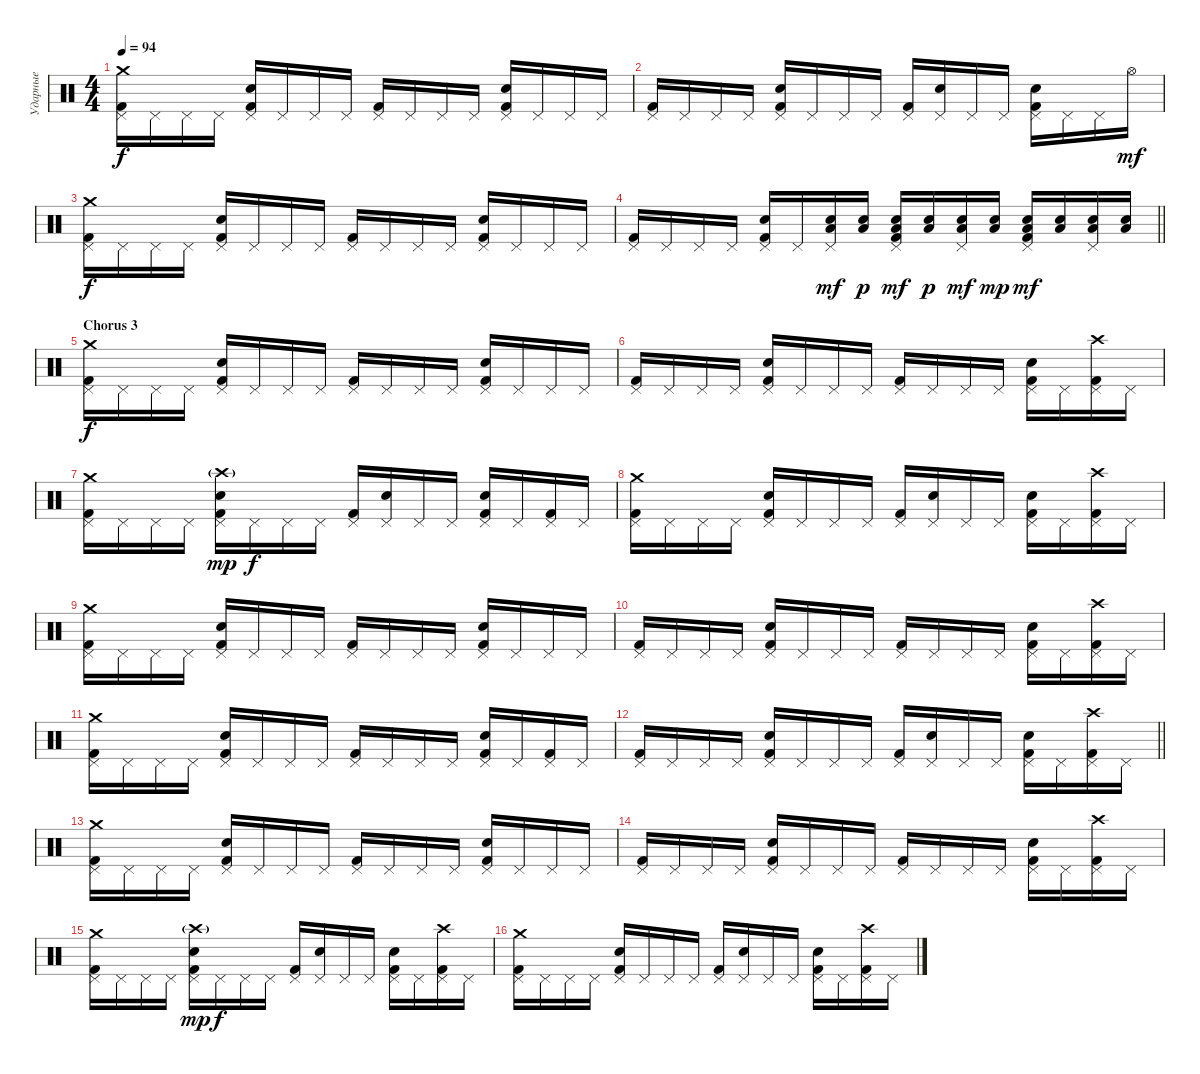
\track ("Ударные" "Ударные") {instrument percussion}
\staff {score}
\articulation defaults
\ts (4 4)
\tempo 94
\clef neutral
\ks c
("Crash medium (hit)" "Pedal Hi-Hat (hit)" "Kick (hit) 2").16{dy f} "Pedal Hi-Hat (hit)".16 "Pedal Hi-Hat (hit)".16 "Pedal Hi-Hat (hit)".16 ("Pedal Hi-Hat (hit)" "Snare (hit) 2" "Kick (hit) 2").16 "Pedal Hi-Hat (hit)".16 "Pedal Hi-Hat (hit)".16 "Pedal Hi-Hat (hit)".16 ("Pedal Hi-Hat (hit)" "Kick (hit) 2").16 "Pedal Hi-Hat (hit)".16 "Pedal Hi-Hat (hit)".16 "Pedal Hi-Hat (hit)".16 ("Pedal Hi-Hat (hit)" "Snare (hit) 2" "Kick (hit) 2").16 "Pedal Hi-Hat (hit)".16 "Pedal Hi-Hat (hit)".16 "Pedal Hi-Hat (hit)".16 |
("Pedal Hi-Hat (hit)" "Kick (hit) 2").16 "Pedal Hi-Hat (hit)".16 "Pedal Hi-Hat (hit)".16 "Pedal Hi-Hat (hit)".16 ("Pedal Hi-Hat (hit)" "Snare (hit) 2" "Kick (hit) 2").16 "Pedal Hi-Hat (hit)".16 "Pedal Hi-Hat (hit)".16 "Pedal Hi-Hat (hit)".16 ("Pedal Hi-Hat (hit)" "Kick (hit) 2").16 ("Pedal Hi-Hat (hit)" "Snare (hit) 2").16 "Pedal Hi-Hat (hit)".16 "Pedal Hi-Hat (hit)".16 ("Pedal Hi-Hat (hit)" "Snare (hit) 2" "Kick (hit) 2").16 "Pedal Hi-Hat (hit)".16 "Pedal Hi-Hat (hit)".16 "Hi-Hat (open)".16{dy mf} |
("Crash medium (hit)" "Pedal Hi-Hat (hit)" "Kick (hit) 2").16{dy f} "Pedal Hi-Hat (hit)".16 "Pedal Hi-Hat (hit)".16 "Pedal Hi-Hat (hit)".16 ("Pedal Hi-Hat (hit)" "Snare (hit) 2" "Kick (hit) 2").16 "Pedal Hi-Hat (hit)".16 "Pedal Hi-Hat (hit)".16 "Pedal Hi-Hat (hit)".16 ("Pedal Hi-Hat (hit)" "Kick (hit) 2").16 "Pedal Hi-Hat (hit)".16 "Pedal Hi-Hat (hit)".16 "Pedal Hi-Hat (hit)".16 ("Pedal Hi-Hat (hit)" "Snare (hit) 2" "Kick (hit) 2").16 "Pedal Hi-Hat (hit)".16 "Pedal Hi-Hat (hit)".16 "Pedal Hi-Hat (hit)".16 |
\barLineRight lightlight
("Pedal Hi-Hat (hit)" "Kick (hit) 2").16 "Pedal Hi-Hat (hit)".16 "Pedal Hi-Hat (hit)".16 "Pedal Hi-Hat (hit)".16 ("Pedal Hi-Hat (hit)" "Snare (hit) 2" "Kick (hit) 2").16 "Pedal Hi-Hat (hit)".16 ("Low Floor Tom (hit)" "Electric Snare (hit)" "Pedal Hi-Hat (hit)").16{dy mf} ("Low Floor Tom (hit)" "Electric Snare (hit)").16{dy p} ("Low Floor Tom (hit)" "Electric Snare (hit)" "Pedal Hi-Hat (hit)" "Kick (hit) 2").16{dy mf} ("Low Floor Tom (hit)" "Electric Snare (hit)").16{dy p} ("Low Floor Tom (hit)" "Electric Snare (hit)" "Pedal Hi-Hat (hit)").16{dy mf} ("Low Floor Tom (hit)" "Electric Snare (hit)").16{dy mp} ("Low Floor Tom (hit)" "Electric Snare (hit)" "Pedal Hi-Hat (hit)" "Kick (hit) 2").16{dy mf} ("Low Floor Tom (hit)" "Electric Snare (hit)").16 ("Low Floor Tom (hit)" "Electric Snare (hit)" "Pedal Hi-Hat (hit)").16 ("Low Floor Tom (hit)" "Electric Snare (hit)").16 |
\section ("" "Chorus 3")
("Crash medium (hit)" "Pedal Hi-Hat (hit)" "Kick (hit) 2").16{dy f} "Pedal Hi-Hat (hit)".16 "Pedal Hi-Hat (hit)".16 "Pedal Hi-Hat (hit)".16 ("Pedal Hi-Hat (hit)" "Snare (hit) 2" "Kick (hit) 2").16 "Pedal Hi-Hat (hit)".16 "Pedal Hi-Hat (hit)".16 "Pedal Hi-Hat (hit)".16 ("Pedal Hi-Hat (hit)" "Kick (hit) 2").16 "Pedal Hi-Hat (hit)".16 "Pedal Hi-Hat (hit)".16 "Pedal Hi-Hat (hit)".16 ("Pedal Hi-Hat (hit)" "Snare (hit) 2" "Kick (hit) 2").16 "Pedal Hi-Hat (hit)".16 "Pedal Hi-Hat (hit)".16 "Pedal Hi-Hat (hit)".16 |
("Pedal Hi-Hat (hit)" "Kick (hit) 2").16 "Pedal Hi-Hat (hit)".16 "Pedal Hi-Hat (hit)".16 "Pedal Hi-Hat (hit)".16 ("Pedal Hi-Hat (hit)" "Snare (hit) 2" "Kick (hit) 2").16 "Pedal Hi-Hat (hit)".16 "Pedal Hi-Hat (hit)".16 "Pedal Hi-Hat (hit)".16 ("Pedal Hi-Hat (hit)" "Kick (hit) 2").16 "Pedal Hi-Hat (hit)".16 "Pedal Hi-Hat (hit)".16 "Pedal Hi-Hat (hit)".16 ("Pedal Hi-Hat (hit)" "Snare (hit) 2" "Kick (hit) 2").16 "Pedal Hi-Hat (hit)".16 ("Crash high (hit)" "Pedal Hi-Hat (hit)" "Kick (hit) 2").16 "Pedal Hi-Hat (hit)".16 |
("Crash medium (hit)" "Pedal Hi-Hat (hit)" "Kick (hit) 2").16 "Pedal Hi-Hat (hit)".16 "Pedal Hi-Hat (hit)".16 "Pedal Hi-Hat (hit)".16 ("Crash high (hit)"{g} "Pedal Hi-Hat (hit)" "Snare (hit) 2" "Kick (hit) 2").16{dy mp} "Pedal Hi-Hat (hit)".16{dy f} "Pedal Hi-Hat (hit)".16 "Pedal Hi-Hat (hit)".16 ("Pedal Hi-Hat (hit)" "Kick (hit) 2").16 ("Pedal Hi-Hat (hit)" "Snare (hit) 2").16 "Pedal Hi-Hat (hit)".16 "Pedal Hi-Hat (hit)".16 ("Pedal Hi-Hat (hit)" "Snare (hit) 2" "Kick (hit) 2").16 "Pedal Hi-Hat (hit)".16 ("Pedal Hi-Hat (hit)" "Kick (hit) 2").16 "Pedal Hi-Hat (hit)".16 |
("Crash medium (hit)" "Pedal Hi-Hat (hit)" "Kick (hit) 2").16 "Pedal Hi-Hat (hit)".16 "Pedal Hi-Hat (hit)".16 "Pedal Hi-Hat (hit)".16 ("Pedal Hi-Hat (hit)" "Snare (hit) 2" "Kick (hit) 2").16 "Pedal Hi-Hat (hit)".16 "Pedal Hi-Hat (hit)".16 "Pedal Hi-Hat (hit)".16 ("Pedal Hi-Hat (hit)" "Kick (hit) 2").16 ("Pedal Hi-Hat (hit)" "Snare (hit) 2").16 "Pedal Hi-Hat (hit)".16 "Pedal Hi-Hat (hit)".16 ("Pedal Hi-Hat (hit)" "Snare (hit) 2" "Kick (hit) 2").16 "Pedal Hi-Hat (hit)".16 ("Crash high (hit)" "Pedal Hi-Hat (hit)" "Kick (hit) 2").16 "Pedal Hi-Hat (hit)".16 |
("Crash medium (hit)" "Pedal Hi-Hat (hit)" "Kick (hit) 2").16 "Pedal Hi-Hat (hit)".16 "Pedal Hi-Hat (hit)".16 "Pedal Hi-Hat (hit)".16 ("Pedal Hi-Hat (hit)" "Snare (hit) 2" "Kick (hit) 2").16 "Pedal Hi-Hat (hit)".16 "Pedal Hi-Hat (hit)".16 "Pedal Hi-Hat (hit)".16 ("Pedal Hi-Hat (hit)" "Kick (hit) 2").16 "Pedal Hi-Hat (hit)".16 "Pedal Hi-Hat (hit)".16 "Pedal Hi-Hat (hit)".16 ("Pedal Hi-Hat (hit)" "Snare (hit) 2" "Kick (hit) 2").16 "Pedal Hi-Hat (hit)".16 "Pedal Hi-Hat (hit)".16 "Pedal Hi-Hat (hit)".16 |
("Pedal Hi-Hat (hit)" "Kick (hit) 2").16 "Pedal Hi-Hat (hit)".16 "Pedal Hi-Hat (hit)".16 "Pedal Hi-Hat (hit)".16 ("Pedal Hi-Hat (hit)" "Snare (hit) 2" "Kick (hit) 2").16 "Pedal Hi-Hat (hit)".16 "Pedal Hi-Hat (hit)".16 "Pedal Hi-Hat (hit)".16 ("Pedal Hi-Hat (hit)" "Kick (hit) 2").16 "Pedal Hi-Hat (hit)".16 "Pedal Hi-Hat (hit)".16 "Pedal Hi-Hat (hit)".16 ("Pedal Hi-Hat (hit)" "Snare (hit) 2" "Kick (hit) 2").16 "Pedal Hi-Hat (hit)".16 ("Crash high (hit)" "Pedal Hi-Hat (hit)" "Kick (hit) 2").16 "Pedal Hi-Hat (hit)".16 |
("Crash medium (hit)" "Pedal Hi-Hat (hit)" "Kick (hit) 2").16 "Pedal Hi-Hat (hit)".16 "Pedal Hi-Hat (hit)".16 "Pedal Hi-Hat (hit)".16 ("Pedal Hi-Hat (hit)" "Snare (hit) 2" "Kick (hit) 2").16 "Pedal Hi-Hat (hit)".16 "Pedal Hi-Hat (hit)".16 "Pedal Hi-Hat (hit)".16 ("Pedal Hi-Hat (hit)" "Kick (hit) 2").16 "Pedal Hi-Hat (hit)".16 "Pedal Hi-Hat (hit)".16 "Pedal Hi-Hat (hit)".16 ("Pedal Hi-Hat (hit)" "Snare (hit) 2" "Kick (hit) 2").16 "Pedal Hi-Hat (hit)".16 ("Pedal Hi-Hat (hit)" "Kick (hit) 2").16 "Pedal Hi-Hat (hit)".16 |
\barLineRight lightlight
("Pedal Hi-Hat (hit)" "Kick (hit) 2").16 "Pedal Hi-Hat (hit)".16 "Pedal Hi-Hat (hit)".16 "Pedal Hi-Hat (hit)".16 ("Pedal Hi-Hat (hit)" "Snare (hit) 2" "Kick (hit) 2").16 "Pedal Hi-Hat (hit)".16 "Pedal Hi-Hat (hit)".16 "Pedal Hi-Hat (hit)".16 ("Pedal Hi-Hat (hit)" "Kick (hit) 2").16 ("Pedal Hi-Hat (hit)" "Snare (hit) 2").16 "Pedal Hi-Hat (hit)".16 "Pedal Hi-Hat (hit)".16 ("Pedal Hi-Hat (hit)" "Snare (hit) 2" "Kick (hit) 2").16 "Pedal Hi-Hat (hit)".16 ("Crash high (hit)" "Pedal Hi-Hat (hit)" "Kick (hit) 2").16 "Pedal Hi-Hat (hit)".16 |
("Crash medium (hit)" "Pedal Hi-Hat (hit)" "Kick (hit) 2").16 "Pedal Hi-Hat (hit)".16 "Pedal Hi-Hat (hit)".16 "Pedal Hi-Hat (hit)".16 ("Pedal Hi-Hat (hit)" "Snare (hit) 2" "Kick (hit) 2").16 "Pedal Hi-Hat (hit)".16 "Pedal Hi-Hat (hit)".16 "Pedal Hi-Hat (hit)".16 ("Pedal Hi-Hat (hit)" "Kick (hit) 2").16 "Pedal Hi-Hat (hit)".16 "Pedal Hi-Hat (hit)".16 "Pedal Hi-Hat (hit)".16 ("Pedal Hi-Hat (hit)" "Snare (hit) 2" "Kick (hit) 2").16 "Pedal Hi-Hat (hit)".16 "Pedal Hi-Hat (hit)".16 "Pedal Hi-Hat (hit)".16 |
("Pedal Hi-Hat (hit)" "Kick (hit) 2").16 "Pedal Hi-Hat (hit)".16 "Pedal Hi-Hat (hit)".16 "Pedal Hi-Hat (hit)".16 ("Pedal Hi-Hat (hit)" "Snare (hit) 2" "Kick (hit) 2").16 "Pedal Hi-Hat (hit)".16 "Pedal Hi-Hat (hit)".16 "Pedal Hi-Hat (hit)".16 ("Pedal Hi-Hat (hit)" "Kick (hit) 2").16 "Pedal Hi-Hat (hit)".16 "Pedal Hi-Hat (hit)".16 "Pedal Hi-Hat (hit)".16 ("Pedal Hi-Hat (hit)" "Snare (hit) 2" "Kick (hit) 2").16 "Pedal Hi-Hat (hit)".16 ("Crash high (hit)" "Pedal Hi-Hat (hit)" "Kick (hit) 2").16 "Pedal Hi-Hat (hit)".16 |
("Crash medium (hit)" "Pedal Hi-Hat (hit)" "Kick (hit) 2").16 "Pedal Hi-Hat (hit)".16 "Pedal Hi-Hat (hit)".16 "Pedal Hi-Hat (hit)".16 ("Crash high (hit)"{g} "Pedal Hi-Hat (hit)" "Snare (hit) 2" "Kick (hit) 2").16{dy mp} "Pedal Hi-Hat (hit)".16{dy f} "Pedal Hi-Hat (hit)".16 "Pedal Hi-Hat (hit)".16 ("Pedal Hi-Hat (hit)" "Kick (hit) 2").16 ("Pedal Hi-Hat (hit)" "Snare (hit) 2").16 "Pedal Hi-Hat (hit)".16 "Pedal Hi-Hat (hit)".16 ("Pedal Hi-Hat (hit)" "Snare (hit) 2" "Kick (hit) 2").16 "Pedal Hi-Hat (hit)".16 ("Crash high (hit)" "Pedal Hi-Hat (hit)" "Kick (hit) 2").16 "Pedal Hi-Hat (hit)".16 |
("Crash medium (hit)" "Pedal Hi-Hat (hit)" "Kick (hit) 2").16 "Pedal Hi-Hat (hit)".16 "Pedal Hi-Hat (hit)".16 "Pedal Hi-Hat (hit)".16 ("Pedal Hi-Hat (hit)" "Snare (hit) 2" "Kick (hit) 2").16 "Pedal Hi-Hat (hit)".16 "Pedal Hi-Hat (hit)".16 "Pedal Hi-Hat (hit)".16 ("Pedal Hi-Hat (hit)" "Kick (hit) 2").16 ("Pedal Hi-Hat (hit)" "Snare (hit) 2").16 "Pedal Hi-Hat (hit)".16 "Pedal Hi-Hat (hit)".16 ("Pedal Hi-Hat (hit)" "Snare (hit) 2" "Kick (hit) 2").16 "Pedal Hi-Hat (hit)".16 ("Crash high (hit)" "Pedal Hi-Hat (hit)" "Kick (hit) 2").16 "Pedal Hi-Hat (hit)".16
